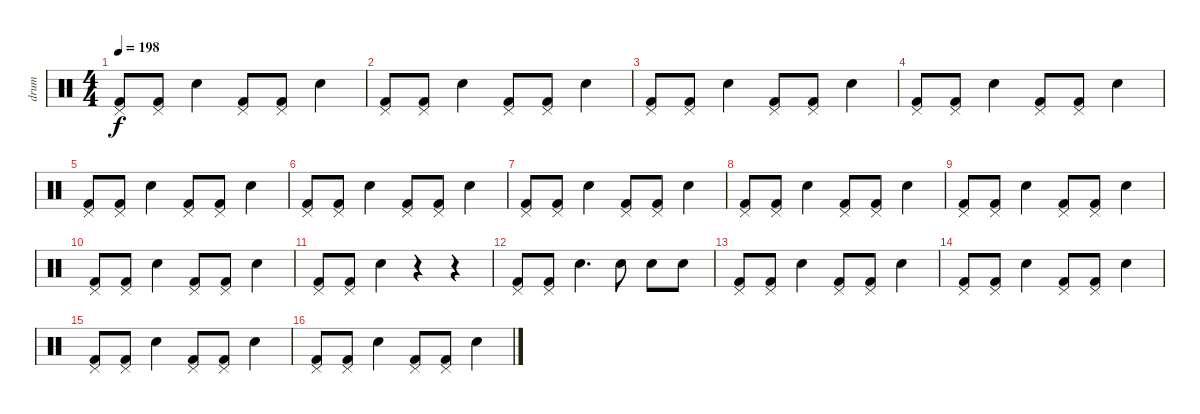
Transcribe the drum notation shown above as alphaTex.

\track ("drum" "drum") {instrument percussion}
\staff {score}
\articulation defaults
\ts (4 4)
\tempo 198
\clef neutral
\ks c
("Pedal Hi-Hat (hit)" "Kick (hit) 2").8{dy f} ("Pedal Hi-Hat (hit)" "Kick (hit) 2").8 "Electric Snare (hit)".4 ("Pedal Hi-Hat (hit)" "Kick (hit) 2").8 ("Pedal Hi-Hat (hit)" "Kick (hit) 2").8 "Electric Snare (hit)".4 |
("Pedal Hi-Hat (hit)" "Kick (hit) 2").8 ("Pedal Hi-Hat (hit)" "Kick (hit) 2").8 "Electric Snare (hit)".4 ("Pedal Hi-Hat (hit)" "Kick (hit) 2").8 ("Pedal Hi-Hat (hit)" "Kick (hit) 2").8 "Electric Snare (hit)".4 |
("Pedal Hi-Hat (hit)" "Kick (hit) 2").8 ("Pedal Hi-Hat (hit)" "Kick (hit) 2").8 "Electric Snare (hit)".4 ("Pedal Hi-Hat (hit)" "Kick (hit) 2").8 ("Pedal Hi-Hat (hit)" "Kick (hit) 2").8 "Electric Snare (hit)".4 |
("Pedal Hi-Hat (hit)" "Kick (hit) 2").8 ("Pedal Hi-Hat (hit)" "Kick (hit) 2").8 "Electric Snare (hit)".4 ("Pedal Hi-Hat (hit)" "Kick (hit) 2").8 ("Pedal Hi-Hat (hit)" "Kick (hit) 2").8 "Electric Snare (hit)".4 |
("Pedal Hi-Hat (hit)" "Kick (hit) 2").8 ("Pedal Hi-Hat (hit)" "Kick (hit) 2").8 "Electric Snare (hit)".4 ("Pedal Hi-Hat (hit)" "Kick (hit) 2").8 ("Pedal Hi-Hat (hit)" "Kick (hit) 2").8 "Electric Snare (hit)".4 |
("Pedal Hi-Hat (hit)" "Kick (hit) 2").8 ("Pedal Hi-Hat (hit)" "Kick (hit) 2").8 "Electric Snare (hit)".4 ("Pedal Hi-Hat (hit)" "Kick (hit) 2").8 ("Pedal Hi-Hat (hit)" "Kick (hit) 2").8 "Electric Snare (hit)".4 |
("Pedal Hi-Hat (hit)" "Kick (hit) 2").8 ("Pedal Hi-Hat (hit)" "Kick (hit) 2").8 "Electric Snare (hit)".4 ("Pedal Hi-Hat (hit)" "Kick (hit) 2").8 ("Pedal Hi-Hat (hit)" "Kick (hit) 2").8 "Electric Snare (hit)".4 |
("Pedal Hi-Hat (hit)" "Kick (hit) 2").8 ("Pedal Hi-Hat (hit)" "Kick (hit) 2").8 "Electric Snare (hit)".4 ("Pedal Hi-Hat (hit)" "Kick (hit) 2").8 ("Pedal Hi-Hat (hit)" "Kick (hit) 2").8 "Electric Snare (hit)".4 |
("Pedal Hi-Hat (hit)" "Kick (hit) 2").8 ("Pedal Hi-Hat (hit)" "Kick (hit) 2").8 "Electric Snare (hit)".4 ("Pedal Hi-Hat (hit)" "Kick (hit) 2").8 ("Pedal Hi-Hat (hit)" "Kick (hit) 2").8 "Electric Snare (hit)".4 |
("Pedal Hi-Hat (hit)" "Kick (hit) 2").8 ("Pedal Hi-Hat (hit)" "Kick (hit) 2").8 "Electric Snare (hit)".4 ("Pedal Hi-Hat (hit)" "Kick (hit) 2").8 ("Pedal Hi-Hat (hit)" "Kick (hit) 2").8 "Electric Snare (hit)".4 |
("Pedal Hi-Hat (hit)" "Kick (hit) 2").8 ("Pedal Hi-Hat (hit)" "Kick (hit) 2").8 "Electric Snare (hit)".4 r.4 r.4 |
("Pedal Hi-Hat (hit)" "Kick (hit) 2").8 ("Pedal Hi-Hat (hit)" "Kick (hit) 2").8 "Electric Snare (hit)".4{d} "Electric Snare (hit)".8 "Electric Snare (hit)".8 "Electric Snare (hit)".8 |
("Pedal Hi-Hat (hit)" "Kick (hit) 2").8 ("Pedal Hi-Hat (hit)" "Kick (hit) 2").8 "Electric Snare (hit)".4 ("Pedal Hi-Hat (hit)" "Kick (hit) 2").8 ("Pedal Hi-Hat (hit)" "Kick (hit) 2").8 "Electric Snare (hit)".4 |
("Pedal Hi-Hat (hit)" "Kick (hit) 2").8 ("Pedal Hi-Hat (hit)" "Kick (hit) 2").8 "Electric Snare (hit)".4 ("Pedal Hi-Hat (hit)" "Kick (hit) 2").8 ("Pedal Hi-Hat (hit)" "Kick (hit) 2").8 "Electric Snare (hit)".4 |
("Pedal Hi-Hat (hit)" "Kick (hit) 2").8 ("Pedal Hi-Hat (hit)" "Kick (hit) 2").8 "Electric Snare (hit)".4 ("Pedal Hi-Hat (hit)" "Kick (hit) 2").8 ("Pedal Hi-Hat (hit)" "Kick (hit) 2").8 "Electric Snare (hit)".4 |
("Pedal Hi-Hat (hit)" "Kick (hit) 2").8 ("Pedal Hi-Hat (hit)" "Kick (hit) 2").8 "Electric Snare (hit)".4 ("Pedal Hi-Hat (hit)" "Kick (hit) 2").8 ("Pedal Hi-Hat (hit)" "Kick (hit) 2").8 "Electric Snare (hit)".4
